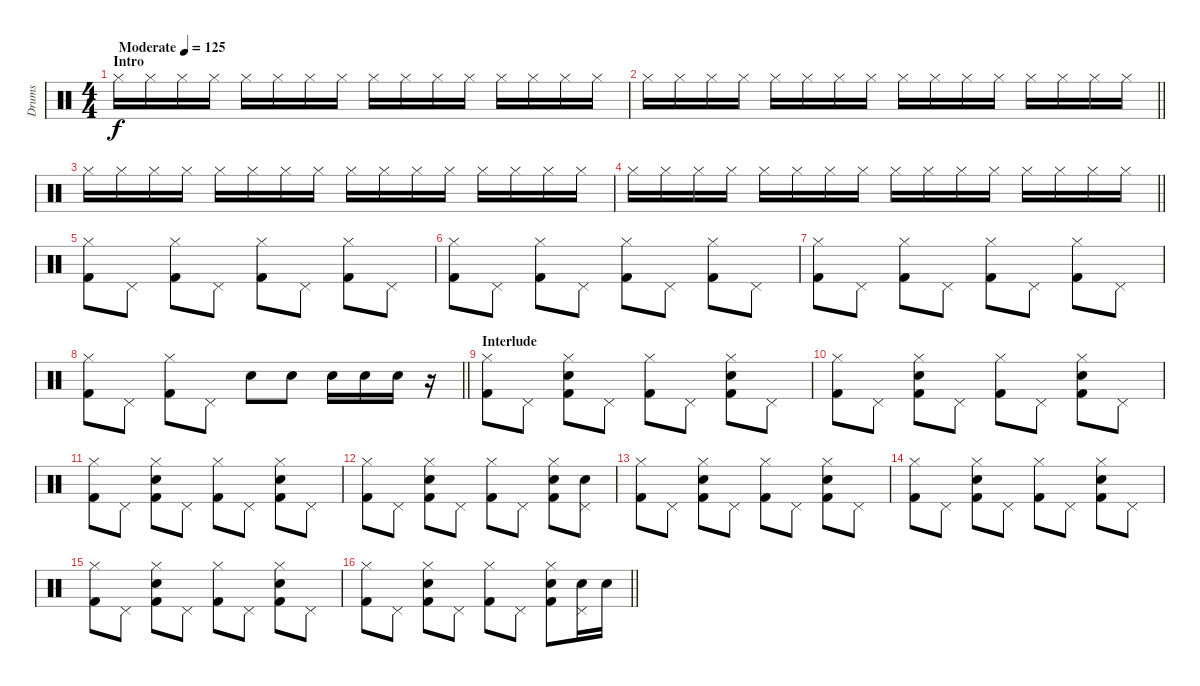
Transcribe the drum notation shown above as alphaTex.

\track ("Drums" "Drums") {instrument percussion}
\staff {score}
\articulation defaults
\ts (4 4)
\section ("" "Intro")
\tempo (125 "Moderate")
\clef neutral
\ks c "Hi-Hat (closed)".16{dy f} "Hi-Hat (closed)".16 "Hi-Hat (closed)".16 "Hi-Hat (closed)".16 "Hi-Hat (closed)".16 "Hi-Hat (closed)".16 "Hi-Hat (closed)".16 "Hi-Hat (closed)".16 "Hi-Hat (closed)".16 "Hi-Hat (closed)".16 "Hi-Hat (closed)".16 "Hi-Hat (closed)".16 "Hi-Hat (closed)".16 "Hi-Hat (closed)".16 "Hi-Hat (closed)".16 "Hi-Hat (closed)".16
|
\barLineRight lightlight "Hi-Hat (closed)".16 "Hi-Hat (closed)".16 "Hi-Hat (closed)".16 "Hi-Hat (closed)".16 "Hi-Hat (closed)".16 "Hi-Hat (closed)".16 "Hi-Hat (closed)".16 "Hi-Hat (closed)".16 "Hi-Hat (closed)".16 "Hi-Hat (closed)".16 "Hi-Hat (closed)".16 "Hi-Hat (closed)".16 "Hi-Hat (closed)".16 "Hi-Hat (closed)".16 "Hi-Hat (closed)".16 "Hi-Hat (closed)".16
|
"Hi-Hat (closed)".16 "Hi-Hat (closed)".16 "Hi-Hat (closed)".16 "Hi-Hat (closed)".16 "Hi-Hat (closed)".16 "Hi-Hat (closed)".16 "Hi-Hat (closed)".16 "Hi-Hat (closed)".16 "Hi-Hat (closed)".16 "Hi-Hat (closed)".16 "Hi-Hat (closed)".16 "Hi-Hat (closed)".16 "Hi-Hat (closed)".16 "Hi-Hat (closed)".16 "Hi-Hat (closed)".16 "Hi-Hat (closed)".16 |
\barLineRight lightlight "Hi-Hat (closed)".16 "Hi-Hat (closed)".16 "Hi-Hat (closed)".16 "Hi-Hat (closed)".16 "Hi-Hat (closed)".16 "Hi-Hat (closed)".16 "Hi-Hat (closed)".16 "Hi-Hat (closed)".16 "Hi-Hat (closed)".16 "Hi-Hat (closed)".16 "Hi-Hat (closed)".16 "Hi-Hat (closed)".16 "Hi-Hat (closed)".16 "Hi-Hat (closed)".16 "Hi-Hat (closed)".16 "Hi-Hat (closed)".16
|
\section ("" "")
("Hi-Hat (closed)" "Kick (hit) 2").8 "Pedal Hi-Hat (hit)".8 ("Hi-Hat (closed)" "Kick (hit) 2").8 "Pedal Hi-Hat (hit)".8 ("Hi-Hat (closed)" "Kick (hit) 2").8 "Pedal Hi-Hat (hit)".8 ("Hi-Hat (closed)" "Kick (hit) 2").8 "Pedal Hi-Hat (hit)".8 |
("Hi-Hat (closed)" "Kick (hit) 2").8 "Pedal Hi-Hat (hit)".8 ("Hi-Hat (closed)" "Kick (hit) 2").8 "Pedal Hi-Hat (hit)".8 ("Hi-Hat (closed)" "Kick (hit) 2").8 "Pedal Hi-Hat (hit)".8 ("Hi-Hat (closed)" "Kick (hit) 2").8 "Pedal Hi-Hat (hit)".8 |
("Hi-Hat (closed)" "Kick (hit) 2").8 "Pedal Hi-Hat (hit)".8 ("Hi-Hat (closed)" "Kick (hit) 2").8 "Pedal Hi-Hat (hit)".8 ("Hi-Hat (closed)" "Kick (hit) 2").8 "Pedal Hi-Hat (hit)".8 ("Hi-Hat (closed)" "Kick (hit) 2").8 "Pedal Hi-Hat (hit)".8 |
\barLineRight lightlight
("Hi-Hat (closed)" "Kick (hit) 2").8 "Pedal Hi-Hat (hit)".8 ("Hi-Hat (closed)" "Kick (hit) 2").8 "Pedal Hi-Hat (hit)".8 "Snare (hit) 2".8 "Snare (hit) 2".8 "Snare (hit) 2".16 "Snare (hit) 2".16 "Snare (hit) 2".16 r.16 |
\section ("" "Interlude")
("Hi-Hat (closed)" "Kick (hit) 2").8 "Pedal Hi-Hat (hit)".8 ("Hi-Hat (closed)" "Snare (hit) 2" "Kick (hit) 2").8 "Pedal Hi-Hat (hit)".8 ("Hi-Hat (closed)" "Kick (hit) 2").8 "Pedal Hi-Hat (hit)".8 ("Hi-Hat (closed)" "Snare (hit) 2" "Kick (hit) 2").8 "Pedal Hi-Hat (hit)".8 |
("Hi-Hat (closed)" "Kick (hit) 2").8 "Pedal Hi-Hat (hit)".8 ("Hi-Hat (closed)" "Snare (hit) 2" "Kick (hit) 2").8 "Pedal Hi-Hat (hit)".8 ("Hi-Hat (closed)" "Kick (hit) 2").8 "Pedal Hi-Hat (hit)".8 ("Hi-Hat (closed)" "Snare (hit) 2" "Kick (hit) 2").8 "Pedal Hi-Hat (hit)".8 |
("Hi-Hat (closed)" "Kick (hit) 2").8 "Pedal Hi-Hat (hit)".8 ("Hi-Hat (closed)" "Snare (hit) 2" "Kick (hit) 2").8 "Pedal Hi-Hat (hit)".8 ("Hi-Hat (closed)" "Kick (hit) 2").8 "Pedal Hi-Hat (hit)".8 ("Hi-Hat (closed)" "Snare (hit) 2" "Kick (hit) 2").8 "Pedal Hi-Hat (hit)".8 |
("Hi-Hat (closed)" "Kick (hit) 2").8 "Pedal Hi-Hat (hit)".8 ("Hi-Hat (closed)" "Snare (hit) 2" "Kick (hit) 2").8 "Pedal Hi-Hat (hit)".8 ("Hi-Hat (closed)" "Kick (hit) 2").8 "Pedal Hi-Hat (hit)".8 ("Hi-Hat (closed)" "Snare (hit) 2" "Kick (hit) 2").8 ("Pedal Hi-Hat (hit)" "Snare (hit) 2").8 |
("Hi-Hat (closed)" "Kick (hit) 2").8 "Pedal Hi-Hat (hit)".8 ("Hi-Hat (closed)" "Snare (hit) 2" "Kick (hit) 2").8 "Pedal Hi-Hat (hit)".8 ("Hi-Hat (closed)" "Kick (hit) 2").8 "Pedal Hi-Hat (hit)".8 ("Hi-Hat (closed)" "Snare (hit) 2" "Kick (hit) 2").8 "Pedal Hi-Hat (hit)".8 |
("Hi-Hat (closed)" "Kick (hit) 2").8 "Pedal Hi-Hat (hit)".8 ("Hi-Hat (closed)" "Snare (hit) 2" "Kick (hit) 2").8 "Pedal Hi-Hat (hit)".8 ("Hi-Hat (closed)" "Kick (hit) 2").8 "Pedal Hi-Hat (hit)".8 ("Hi-Hat (closed)" "Snare (hit) 2" "Kick (hit) 2").8 "Pedal Hi-Hat (hit)".8 |
("Hi-Hat (closed)" "Kick (hit) 2").8 "Pedal Hi-Hat (hit)".8 ("Hi-Hat (closed)" "Snare (hit) 2" "Kick (hit) 2").8 "Pedal Hi-Hat (hit)".8 ("Hi-Hat (closed)" "Kick (hit) 2").8 "Pedal Hi-Hat (hit)".8 ("Hi-Hat (closed)" "Snare (hit) 2" "Kick (hit) 2").8 "Pedal Hi-Hat (hit)".8 |
\barLineRight lightlight
("Hi-Hat (closed)" "Kick (hit) 2").8 "Pedal Hi-Hat (hit)".8 ("Hi-Hat (closed)" "Snare (hit) 2" "Kick (hit) 2").8 "Pedal Hi-Hat (hit)".8 ("Hi-Hat (closed)" "Kick (hit) 2").8 "Pedal Hi-Hat (hit)".8 ("Hi-Hat (closed)" "Snare (hit) 2" "Kick (hit) 2").8 ("Pedal Hi-Hat (hit)" "Snare (hit) 2").16 "Snare (hit) 2".16
